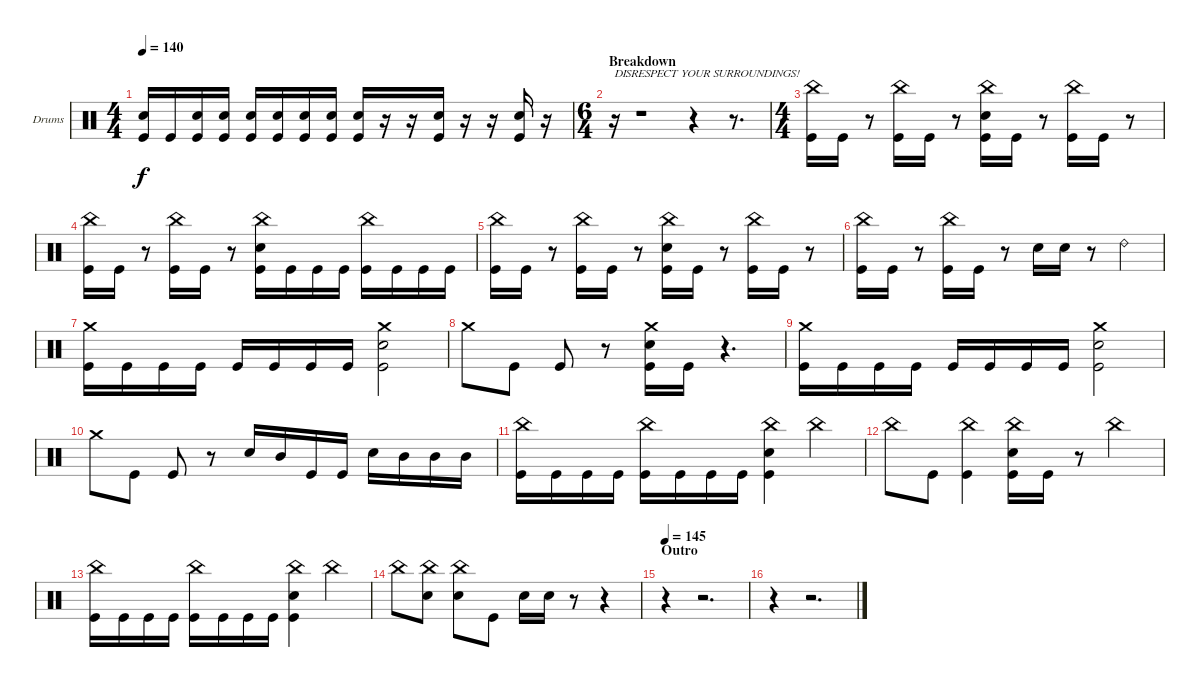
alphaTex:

\bracketExtendMode groupsimilarinstruments
\firstSystemTrackNameOrientation horizontal
\otherSystemsTrackNameOrientation horizontal
\track ("Drumkit" "Drums") {instrument percussion}
\staff {score}
\articulation defaults
\ts (4 4)
\tempo 140
\clef neutral
\ks c
("Snare (hit) 2" "Kick (hit)").16{dy f} "Kick (hit)".16 ("Snare (hit) 2" "Kick (hit)").16 ("Snare (hit) 2" "Kick (hit)").16 ("Snare (hit) 2" "Kick (hit)").16 ("Snare (hit) 2" "Kick (hit)").16 ("Snare (hit) 2" "Kick (hit)").16 ("Snare (hit) 2" "Kick (hit)").16 ("Snare (hit) 2" "Kick (hit)").16 r.16 r.16 ("Snare (hit) 2" "Kick (hit)").16 r.16 r.16 ("Snare (hit) 2" "Kick (hit)").16 r.16 |
\ts (6 4)
\beaming (8 6 6)
\section ("" "Breakdown")
r.16{txt "DISRESPECT YOUR SURROUNDINGS!"} r.1 r.4 r.8{d} |
\ts (4 4)
\beaming (8 2 2 2 2)
("China (hit)" "Kick (hit)").16 "Kick (hit)".16 r.8 ("China (hit)" "Kick (hit)").16 "Kick (hit)".16 r.8 ("China (hit)" "Snare (hit) 2" "Kick (hit)").16 "Kick (hit)".16 r.8 ("China (hit)" "Kick (hit)").16 "Kick (hit)".16 r.8 |
("China (hit)" "Kick (hit)").16 "Kick (hit)".16 r.8 ("China (hit)" "Kick (hit)").16 "Kick (hit)".16 r.8 ("China (hit)" "Snare (hit) 2" "Kick (hit)").16 "Kick (hit)".16 "Kick (hit)".16 "Kick (hit)".16 ("China (hit)" "Kick (hit)").16 "Kick (hit)".16 "Kick (hit)".16 "Kick (hit)".16 |
("China (hit)" "Kick (hit)").16 "Kick (hit)".16 r.8 ("China (hit)" "Kick (hit)").16 "Kick (hit)".16 r.8 ("China (hit)" "Snare (hit) 2" "Kick (hit)").16 "Kick (hit)".16 r.8 ("China (hit)" "Kick (hit)").16 "Kick (hit)".16 r.8 |
("China (hit)" "Kick (hit)").16 "Kick (hit)".16 r.8 ("China (hit)" "Kick (hit)").16 "Kick (hit)".16 r.8 "Snare (hit) 2".16 "Snare (hit) 2".16 r.8 "Ride (bell) 2".4 |
("Crash medium (hit)" "Kick (hit)").16 "Kick (hit)".16 "Kick (hit)".16 "Kick (hit)".16 "Kick (hit)".16 "Kick (hit)".16 "Kick (hit)".16 "Kick (hit)".16 ("Crash medium (hit)" "Snare (hit) 2" "Kick (hit)").2 |
"Crash medium (hit)".8 "Kick (hit)".8 "Kick (hit)".8 r.8 ("Crash medium (hit)" "Snare (hit) 2" "Kick (hit)").16 "Kick (hit)".16 r.4{d} |
("Crash medium (hit)" "Kick (hit)").16 "Kick (hit)".16 "Kick (hit)".16 "Kick (hit)".16 "Kick (hit)".16 "Kick (hit)".16 "Kick (hit)".16 "Kick (hit)".16 ("Crash medium (hit)" "Snare (hit) 2" "Kick (hit)").2 |
"Crash medium (hit)".8 "Kick (hit)".8 "Kick (hit)".8 r.8 "Snare (hit) 2".16 "Mid Tom (hit)".16 "Kick (hit)".16 "Kick (hit)".16 "Snare (hit) 2".16 "Mid Tom (hit)".16 "Mid Tom (hit)".16 "Mid Tom (hit)".16 |
("China (hit)" "Kick (hit)").16 "Kick (hit)".16 "Kick (hit)".16 "Kick (hit)".16 ("China (hit)" "Kick (hit)").16 "Kick (hit)".16 "Kick (hit)".16 "Kick (hit)".16 ("China (hit)" "Snare (hit) 2" "Kick (hit)").4 "China (hit)".4 |
"China (hit)".8 "Kick (hit)".8 ("China (hit)" "Kick (hit)").4 ("China (hit)" "Snare (hit) 2" "Kick (hit)").16 "Kick (hit)".16 r.8 "China (hit)".4 |
("China (hit)" "Kick (hit)").16 "Kick (hit)".16 "Kick (hit)".16 "Kick (hit)".16 ("China (hit)" "Kick (hit)").16 "Kick (hit)".16 "Kick (hit)".16 "Kick (hit)".16 ("China (hit)" "Snare (hit) 2" "Kick (hit)").4 "China (hit)".4 |
"China (hit)".8 ("China (hit)" "Snare (hit) 2").8 ("China (hit)" "Snare (hit) 2").8 "Kick (hit)".8 "Snare (hit) 2".16 "Snare (hit) 2".16 r.8 r.4 |
\section ("" "Outro")
\tempo 145
r.4 r.2{d} |
r.4 r.2{d}
